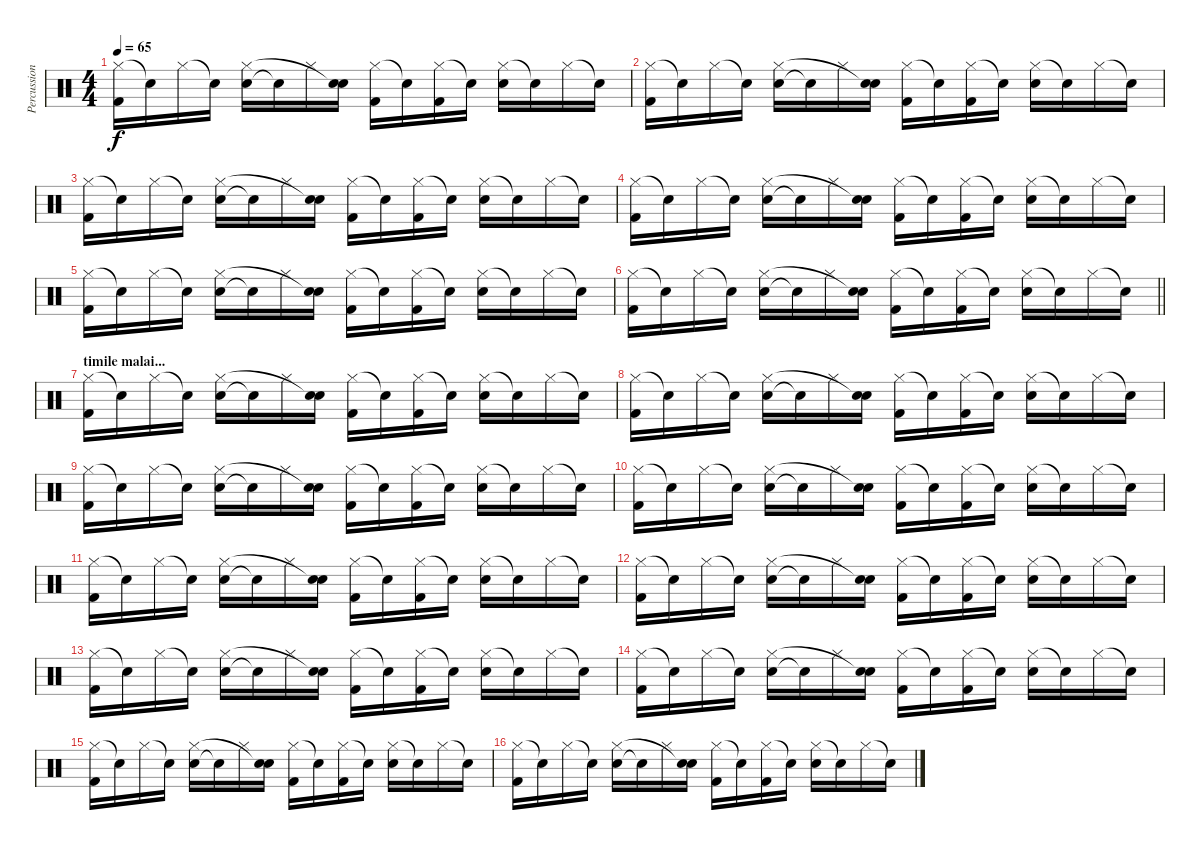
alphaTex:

\track ("Percussion" "Percussion") {instrument percussion}
\staff {score}
\articulation defaults
\ts (4 4)
\tempo 65
\clef neutral
\ks c
("Hi-Hat (closed)" "Kick (hit) 2").16{dy f} "Snare (hit)"{t}.16 "Hi-Hat (closed)".16 "Snare (hit)"{t}.16 ("Electric Snare (hit)" "Hi-Hat (closed)").16 "Snare (hit)"{t}.16 "Hi-Hat (closed)".16 ("Electric Snare (hit)" "Snare (hit)"{t}).16 ("Hi-Hat (closed)" "Kick (hit) 2").16 "Snare (hit)"{t}.16 ("Hi-Hat (closed)" "Kick (hit) 2").16 "Snare (hit)"{t}.16 ("Hi-Hat (closed)" "Electric Snare (hit)").16 "Snare (hit)"{t}.16 "Hi-Hat (closed)".16 "Snare (hit)"{t}.16 |
("Hi-Hat (closed)" "Kick (hit) 2").16 "Snare (hit)"{t}.16 "Hi-Hat (closed)".16 "Snare (hit)"{t}.16 ("Electric Snare (hit)" "Hi-Hat (closed)").16 "Snare (hit)"{t}.16 "Hi-Hat (closed)".16 ("Electric Snare (hit)" "Snare (hit)"{t}).16 ("Hi-Hat (closed)" "Kick (hit) 2").16 "Snare (hit)"{t}.16 ("Hi-Hat (closed)" "Kick (hit) 2").16 "Snare (hit)"{t}.16 ("Hi-Hat (closed)" "Electric Snare (hit)").16 "Snare (hit)"{t}.16 "Hi-Hat (closed)".16 "Snare (hit)"{t}.16 |
("Hi-Hat (closed)" "Kick (hit) 2").16 "Snare (hit)"{t}.16 "Hi-Hat (closed)".16 "Snare (hit)"{t}.16 ("Electric Snare (hit)" "Hi-Hat (closed)").16 "Snare (hit)"{t}.16 "Hi-Hat (closed)".16 ("Electric Snare (hit)" "Snare (hit)"{t}).16 ("Hi-Hat (closed)" "Kick (hit) 2").16 "Snare (hit)"{t}.16 ("Hi-Hat (closed)" "Kick (hit) 2").16 "Snare (hit)"{t}.16 ("Hi-Hat (closed)" "Electric Snare (hit)").16 "Snare (hit)"{t}.16 "Hi-Hat (closed)".16 "Snare (hit)"{t}.16 |
("Hi-Hat (closed)" "Kick (hit) 2").16 "Snare (hit)"{t}.16 "Hi-Hat (closed)".16 "Snare (hit)"{t}.16 ("Electric Snare (hit)" "Hi-Hat (closed)").16 "Snare (hit)"{t}.16 "Hi-Hat (closed)".16 ("Electric Snare (hit)" "Snare (hit)"{t}).16 ("Hi-Hat (closed)" "Kick (hit) 2").16 "Snare (hit)"{t}.16 ("Hi-Hat (closed)" "Kick (hit) 2").16 "Snare (hit)"{t}.16 ("Hi-Hat (closed)" "Electric Snare (hit)").16 "Snare (hit)"{t}.16 "Hi-Hat (closed)".16 "Snare (hit)"{t}.16 |
("Hi-Hat (closed)" "Kick (hit) 2").16 "Snare (hit)"{t}.16 "Hi-Hat (closed)".16 "Snare (hit)"{t}.16 ("Electric Snare (hit)" "Hi-Hat (closed)").16 "Snare (hit)"{t}.16 "Hi-Hat (closed)".16 ("Electric Snare (hit)" "Snare (hit)"{t}).16 ("Hi-Hat (closed)" "Kick (hit) 2").16 "Snare (hit)"{t}.16 ("Hi-Hat (closed)" "Kick (hit) 2").16 "Snare (hit)"{t}.16 ("Hi-Hat (closed)" "Electric Snare (hit)").16 "Snare (hit)"{t}.16 "Hi-Hat (closed)".16 "Snare (hit)"{t}.16 |
\barLineRight lightlight
("Hi-Hat (closed)" "Kick (hit) 2").16 "Snare (hit)"{t}.16 "Hi-Hat (closed)".16 "Snare (hit)"{t}.16 ("Electric Snare (hit)" "Hi-Hat (closed)").16 "Snare (hit)"{t}.16 "Hi-Hat (closed)".16 ("Electric Snare (hit)" "Snare (hit)"{t}).16 ("Hi-Hat (closed)" "Kick (hit) 2").16 "Snare (hit)"{t}.16 ("Hi-Hat (closed)" "Kick (hit) 2").16 "Snare (hit)"{t}.16 ("Hi-Hat (closed)" "Electric Snare (hit)").16 "Snare (hit)"{t}.16 "Hi-Hat (closed)".16 "Snare (hit)"{t}.16 |
\section ("" "timile malai...")
("Hi-Hat (closed)" "Kick (hit) 2").16 "Snare (hit)"{t}.16 "Hi-Hat (closed)".16 "Snare (hit)"{t}.16 ("Electric Snare (hit)" "Hi-Hat (closed)").16 "Snare (hit)"{t}.16 "Hi-Hat (closed)".16 ("Electric Snare (hit)" "Snare (hit)"{t}).16 ("Hi-Hat (closed)" "Kick (hit) 2").16 "Snare (hit)"{t}.16 ("Hi-Hat (closed)" "Kick (hit) 2").16 "Snare (hit)"{t}.16 ("Hi-Hat (closed)" "Electric Snare (hit)").16 "Snare (hit)"{t}.16 "Hi-Hat (closed)".16 "Snare (hit)"{t}.16 |
("Hi-Hat (closed)" "Kick (hit) 2").16 "Snare (hit)"{t}.16 "Hi-Hat (closed)".16 "Snare (hit)"{t}.16 ("Electric Snare (hit)" "Hi-Hat (closed)").16 "Snare (hit)"{t}.16 "Hi-Hat (closed)".16 ("Electric Snare (hit)" "Snare (hit)"{t}).16 ("Hi-Hat (closed)" "Kick (hit) 2").16 "Snare (hit)"{t}.16 ("Hi-Hat (closed)" "Kick (hit) 2").16 "Snare (hit)"{t}.16 ("Hi-Hat (closed)" "Electric Snare (hit)").16 "Snare (hit)"{t}.16 "Hi-Hat (closed)".16 "Snare (hit)"{t}.16 |
("Hi-Hat (closed)" "Kick (hit) 2").16 "Snare (hit)"{t}.16 "Hi-Hat (closed)".16 "Snare (hit)"{t}.16 ("Electric Snare (hit)" "Hi-Hat (closed)").16 "Snare (hit)"{t}.16 "Hi-Hat (closed)".16 ("Electric Snare (hit)" "Snare (hit)"{t}).16 ("Hi-Hat (closed)" "Kick (hit) 2").16 "Snare (hit)"{t}.16 ("Hi-Hat (closed)" "Kick (hit) 2").16 "Snare (hit)"{t}.16 ("Hi-Hat (closed)" "Electric Snare (hit)").16 "Snare (hit)"{t}.16 "Hi-Hat (closed)".16 "Snare (hit)"{t}.16 |
("Hi-Hat (closed)" "Kick (hit) 2").16 "Snare (hit)"{t}.16 "Hi-Hat (closed)".16 "Snare (hit)"{t}.16 ("Electric Snare (hit)" "Hi-Hat (closed)").16 "Snare (hit)"{t}.16 "Hi-Hat (closed)".16 ("Electric Snare (hit)" "Snare (hit)"{t}).16 ("Hi-Hat (closed)" "Kick (hit) 2").16 "Snare (hit)"{t}.16 ("Hi-Hat (closed)" "Kick (hit) 2").16 "Snare (hit)"{t}.16 ("Hi-Hat (closed)" "Electric Snare (hit)").16 "Snare (hit)"{t}.16 "Hi-Hat (closed)".16 "Snare (hit)"{t}.16 |
("Hi-Hat (closed)" "Kick (hit) 2").16 "Snare (hit)"{t}.16 "Hi-Hat (closed)".16 "Snare (hit)"{t}.16 ("Electric Snare (hit)" "Hi-Hat (closed)").16 "Snare (hit)"{t}.16 "Hi-Hat (closed)".16 ("Electric Snare (hit)" "Snare (hit)"{t}).16 ("Hi-Hat (closed)" "Kick (hit) 2").16 "Snare (hit)"{t}.16 ("Hi-Hat (closed)" "Kick (hit) 2").16 "Snare (hit)"{t}.16 ("Hi-Hat (closed)" "Electric Snare (hit)").16 "Snare (hit)"{t}.16 "Hi-Hat (closed)".16 "Snare (hit)"{t}.16 |
("Hi-Hat (closed)" "Kick (hit) 2").16 "Snare (hit)"{t}.16 "Hi-Hat (closed)".16 "Snare (hit)"{t}.16 ("Electric Snare (hit)" "Hi-Hat (closed)").16 "Snare (hit)"{t}.16 "Hi-Hat (closed)".16 ("Electric Snare (hit)" "Snare (hit)"{t}).16 ("Hi-Hat (closed)" "Kick (hit) 2").16 "Snare (hit)"{t}.16 ("Hi-Hat (closed)" "Kick (hit) 2").16 "Snare (hit)"{t}.16 ("Hi-Hat (closed)" "Electric Snare (hit)").16 "Snare (hit)"{t}.16 "Hi-Hat (closed)".16 "Snare (hit)"{t}.16 |
("Hi-Hat (closed)" "Kick (hit) 2").16 "Snare (hit)"{t}.16 "Hi-Hat (closed)".16 "Snare (hit)"{t}.16 ("Electric Snare (hit)" "Hi-Hat (closed)").16 "Snare (hit)"{t}.16 "Hi-Hat (closed)".16 ("Electric Snare (hit)" "Snare (hit)"{t}).16 ("Hi-Hat (closed)" "Kick (hit) 2").16 "Snare (hit)"{t}.16 ("Hi-Hat (closed)" "Kick (hit) 2").16 "Snare (hit)"{t}.16 ("Hi-Hat (closed)" "Electric Snare (hit)").16 "Snare (hit)"{t}.16 "Hi-Hat (closed)".16 "Snare (hit)"{t}.16 |
("Hi-Hat (closed)" "Kick (hit) 2").16 "Snare (hit)"{t}.16 "Hi-Hat (closed)".16 "Snare (hit)"{t}.16 ("Electric Snare (hit)" "Hi-Hat (closed)").16 "Snare (hit)"{t}.16 "Hi-Hat (closed)".16 ("Electric Snare (hit)" "Snare (hit)"{t}).16 ("Hi-Hat (closed)" "Kick (hit) 2").16 "Snare (hit)"{t}.16 ("Hi-Hat (closed)" "Kick (hit) 2").16 "Snare (hit)"{t}.16 ("Hi-Hat (closed)" "Electric Snare (hit)").16 "Snare (hit)"{t}.16 "Hi-Hat (closed)".16 "Snare (hit)"{t}.16 |
("Hi-Hat (closed)" "Kick (hit) 2").16 "Snare (hit)"{t}.16 "Hi-Hat (closed)".16 "Snare (hit)"{t}.16 ("Electric Snare (hit)" "Hi-Hat (closed)").16 "Snare (hit)"{t}.16 "Hi-Hat (closed)".16 ("Electric Snare (hit)" "Snare (hit)"{t}).16 ("Hi-Hat (closed)" "Kick (hit) 2").16 "Snare (hit)"{t}.16 ("Hi-Hat (closed)" "Kick (hit) 2").16 "Snare (hit)"{t}.16 ("Hi-Hat (closed)" "Electric Snare (hit)").16 "Snare (hit)"{t}.16 "Hi-Hat (closed)".16 "Snare (hit)"{t}.16 |
("Hi-Hat (closed)" "Kick (hit) 2").16 "Snare (hit)"{t}.16 "Hi-Hat (closed)".16 "Snare (hit)"{t}.16 ("Electric Snare (hit)" "Hi-Hat (closed)").16 "Snare (hit)"{t}.16 "Hi-Hat (closed)".16 ("Electric Snare (hit)" "Snare (hit)"{t}).16 ("Hi-Hat (closed)" "Kick (hit) 2").16 "Snare (hit)"{t}.16 ("Hi-Hat (closed)" "Kick (hit) 2").16 "Snare (hit)"{t}.16 ("Hi-Hat (closed)" "Electric Snare (hit)").16 "Snare (hit)"{t}.16 "Hi-Hat (closed)".16 "Snare (hit)"{t}.16
